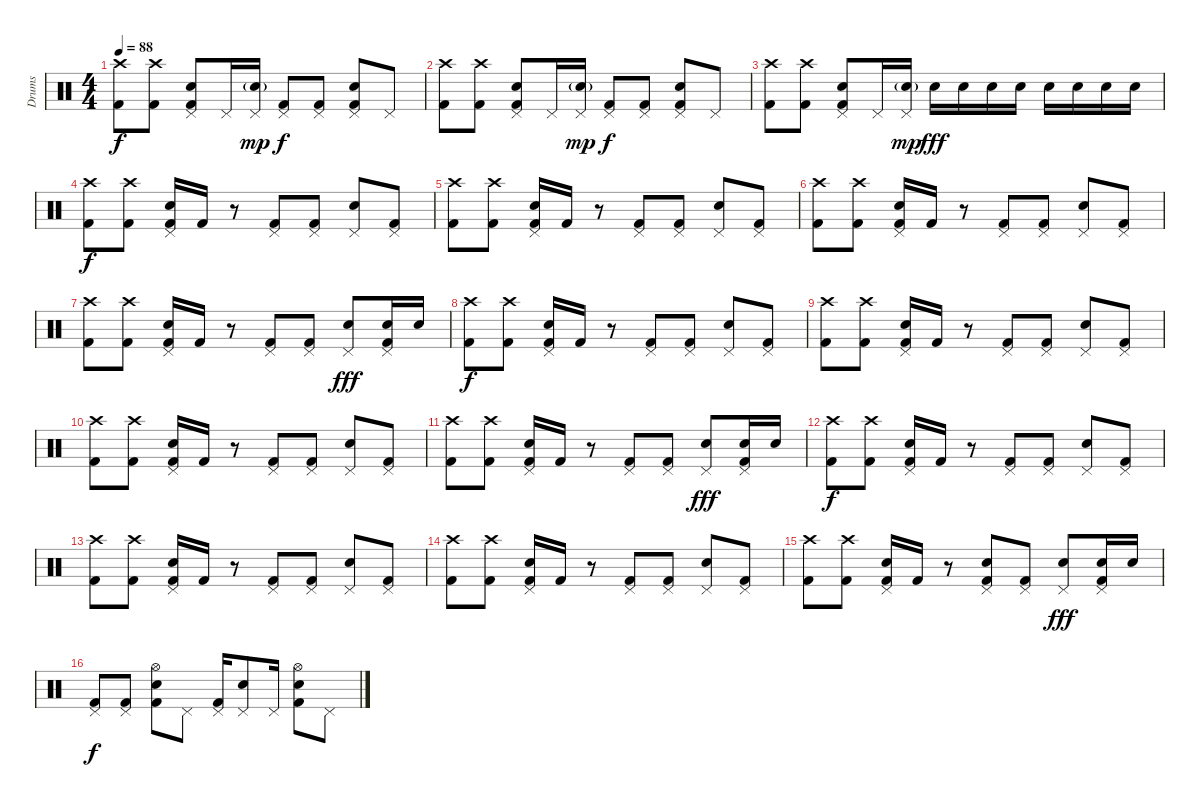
\track ("Drums" "Drums") {instrument percussion}
\staff {score}
\articulation defaults
\ts (4 4)
\tempo 88
\clef neutral
\ks c
("Crash high (hit)" "Kick (hit) 2").8{dy f} ("Crash high (hit)" "Kick (hit) 2").8 ("Pedal Hi-Hat (hit)" "Snare (hit) 2" "Kick (hit) 2").8 "Pedal Hi-Hat (hit)".16 ("Pedal Hi-Hat (hit)" "Snare (hit) 2"{g}).16{dy mp} ("Pedal Hi-Hat (hit)" "Kick (hit) 2").8{dy f} ("Pedal Hi-Hat (hit)" "Kick (hit) 2").8 ("Pedal Hi-Hat (hit)" "Snare (hit) 2" "Kick (hit) 2").8 "Pedal Hi-Hat (hit)".8 |
("Crash high (hit)" "Kick (hit) 2").8 ("Crash high (hit)" "Kick (hit) 2").8 ("Pedal Hi-Hat (hit)" "Snare (hit) 2" "Kick (hit) 2").8 "Pedal Hi-Hat (hit)".16 ("Pedal Hi-Hat (hit)" "Snare (hit) 2"{g}).16{dy mp} ("Pedal Hi-Hat (hit)" "Kick (hit) 2").8{dy f} ("Pedal Hi-Hat (hit)" "Kick (hit) 2").8 ("Pedal Hi-Hat (hit)" "Snare (hit) 2" "Kick (hit) 2").8 "Pedal Hi-Hat (hit)".8 |
("Crash high (hit)" "Kick (hit) 2").8 ("Crash high (hit)" "Kick (hit) 2").8 ("Pedal Hi-Hat (hit)" "Snare (hit) 2" "Kick (hit) 2").8 "Pedal Hi-Hat (hit)".16 ("Pedal Hi-Hat (hit)" "Snare (hit) 2"{g}).16{dy mp} "Snare (hit) 2".16{dy fff} "Snare (hit) 2".16 "Snare (hit) 2".16 "Snare (hit) 2".16 "Snare (hit) 2".16 "Snare (hit) 2".16 "Snare (hit) 2".16 "Snare (hit) 2".16 |
("Crash high (hit)" "Kick (hit) 2").8{dy f} ("Crash high (hit)" "Kick (hit) 2").8 ("Pedal Hi-Hat (hit)" "Snare (hit) 2" "Kick (hit) 2").16 "Kick (hit) 2".16 r.8 ("Pedal Hi-Hat (hit)" "Kick (hit) 2").8 ("Pedal Hi-Hat (hit)" "Kick (hit) 2").8 ("Pedal Hi-Hat (hit)" "Snare (hit) 2").8 ("Pedal Hi-Hat (hit)" "Kick (hit) 2").8 |
("Crash high (hit)" "Kick (hit) 2").8 ("Crash high (hit)" "Kick (hit) 2").8 ("Pedal Hi-Hat (hit)" "Snare (hit) 2" "Kick (hit) 2").16 "Kick (hit) 2".16 r.8 ("Pedal Hi-Hat (hit)" "Kick (hit) 2").8 ("Pedal Hi-Hat (hit)" "Kick (hit) 2").8 ("Pedal Hi-Hat (hit)" "Snare (hit) 2").8 ("Pedal Hi-Hat (hit)" "Kick (hit) 2").8 |
("Crash high (hit)" "Kick (hit) 2").8 ("Crash high (hit)" "Kick (hit) 2").8 ("Pedal Hi-Hat (hit)" "Snare (hit) 2" "Kick (hit) 2").16 "Kick (hit) 2".16 r.8 ("Pedal Hi-Hat (hit)" "Kick (hit) 2").8 ("Pedal Hi-Hat (hit)" "Kick (hit) 2").8 ("Pedal Hi-Hat (hit)" "Snare (hit) 2").8 ("Pedal Hi-Hat (hit)" "Kick (hit) 2").8 |
("Crash high (hit)" "Kick (hit) 2").8 ("Crash high (hit)" "Kick (hit) 2").8 ("Pedal Hi-Hat (hit)" "Snare (hit) 2" "Kick (hit) 2").16 "Kick (hit) 2".16 r.8 ("Pedal Hi-Hat (hit)" "Kick (hit) 2").8 ("Pedal Hi-Hat (hit)" "Kick (hit) 2").8 ("Pedal Hi-Hat (hit)" "Snare (hit) 2").8{dy fff} ("Pedal Hi-Hat (hit)" "Snare (hit) 2" "Kick (hit) 2").16 "Snare (hit) 2".16 |
("Crash high (hit)" "Kick (hit) 2").8{dy f} ("Crash high (hit)" "Kick (hit) 2").8 ("Pedal Hi-Hat (hit)" "Snare (hit) 2" "Kick (hit) 2").16 "Kick (hit) 2".16 r.8 ("Pedal Hi-Hat (hit)" "Kick (hit) 2").8 ("Pedal Hi-Hat (hit)" "Kick (hit) 2").8 ("Pedal Hi-Hat (hit)" "Snare (hit) 2").8 ("Pedal Hi-Hat (hit)" "Kick (hit) 2").8 |
("Crash high (hit)" "Kick (hit) 2").8 ("Crash high (hit)" "Kick (hit) 2").8 ("Pedal Hi-Hat (hit)" "Snare (hit) 2" "Kick (hit) 2").16 "Kick (hit) 2".16 r.8 ("Pedal Hi-Hat (hit)" "Kick (hit) 2").8 ("Pedal Hi-Hat (hit)" "Kick (hit) 2").8 ("Pedal Hi-Hat (hit)" "Snare (hit) 2").8 ("Pedal Hi-Hat (hit)" "Kick (hit) 2").8 |
("Crash high (hit)" "Kick (hit) 2").8 ("Crash high (hit)" "Kick (hit) 2").8 ("Pedal Hi-Hat (hit)" "Snare (hit) 2" "Kick (hit) 2").16 "Kick (hit) 2".16 r.8 ("Pedal Hi-Hat (hit)" "Kick (hit) 2").8 ("Pedal Hi-Hat (hit)" "Kick (hit) 2").8 ("Pedal Hi-Hat (hit)" "Snare (hit) 2").8 ("Pedal Hi-Hat (hit)" "Kick (hit) 2").8 |
("Crash high (hit)" "Kick (hit) 2").8 ("Crash high (hit)" "Kick (hit) 2").8 ("Pedal Hi-Hat (hit)" "Snare (hit) 2" "Kick (hit) 2").16 "Kick (hit) 2".16 r.8 ("Pedal Hi-Hat (hit)" "Kick (hit) 2").8 ("Pedal Hi-Hat (hit)" "Kick (hit) 2").8 ("Pedal Hi-Hat (hit)" "Snare (hit) 2").8{dy fff} ("Pedal Hi-Hat (hit)" "Snare (hit) 2" "Kick (hit) 2").16 "Snare (hit) 2".16 |
("Crash high (hit)" "Kick (hit) 2").8{dy f} ("Crash high (hit)" "Kick (hit) 2").8 ("Pedal Hi-Hat (hit)" "Snare (hit) 2" "Kick (hit) 2").16 "Kick (hit) 2".16 r.8 ("Pedal Hi-Hat (hit)" "Kick (hit) 2").8 ("Pedal Hi-Hat (hit)" "Kick (hit) 2").8 ("Pedal Hi-Hat (hit)" "Snare (hit) 2").8 ("Pedal Hi-Hat (hit)" "Kick (hit) 2").8 |
("Crash high (hit)" "Kick (hit) 2").8 ("Crash high (hit)" "Kick (hit) 2").8 ("Pedal Hi-Hat (hit)" "Snare (hit) 2" "Kick (hit) 2").16 "Kick (hit) 2".16 r.8 ("Pedal Hi-Hat (hit)" "Kick (hit) 2").8 ("Pedal Hi-Hat (hit)" "Kick (hit) 2").8 ("Pedal Hi-Hat (hit)" "Snare (hit) 2").8 ("Pedal Hi-Hat (hit)" "Kick (hit) 2").8 |
("Crash high (hit)" "Kick (hit) 2").8 ("Crash high (hit)" "Kick (hit) 2").8 ("Pedal Hi-Hat (hit)" "Snare (hit) 2" "Kick (hit) 2").16 "Kick (hit) 2".16 r.8 ("Pedal Hi-Hat (hit)" "Kick (hit) 2").8 ("Pedal Hi-Hat (hit)" "Kick (hit) 2").8 ("Pedal Hi-Hat (hit)" "Snare (hit) 2").8 ("Pedal Hi-Hat (hit)" "Kick (hit) 2").8 |
("Crash high (hit)" "Kick (hit) 2").8 ("Crash high (hit)" "Kick (hit) 2").8 ("Pedal Hi-Hat (hit)" "Snare (hit) 2" "Kick (hit) 2").16 "Kick (hit) 2".16 r.8 ("Pedal Hi-Hat (hit)" "Snare (hit) 2" "Kick (hit) 2").8 ("Pedal Hi-Hat (hit)" "Kick (hit) 2").8 ("Pedal Hi-Hat (hit)" "Snare (hit) 2").8{dy fff} ("Pedal Hi-Hat (hit)" "Snare (hit) 2" "Kick (hit) 2").16 "Snare (hit) 2".16 |
("Pedal Hi-Hat (hit)" "Kick (hit) 2").8{dy f} ("Pedal Hi-Hat (hit)" "Kick (hit) 2").8 ("Hi-Hat (open)" "Snare (hit) 2" "Kick (hit) 2").8 "Pedal Hi-Hat (hit)".8 ("Pedal Hi-Hat (hit)" "Kick (hit) 2").16 ("Pedal Hi-Hat (hit)" "Snare (hit) 2").8 "Pedal Hi-Hat (hit)".16 ("Hi-Hat (open)" "Snare (hit) 2" "Kick (hit) 2").8 "Pedal Hi-Hat (hit)".8
